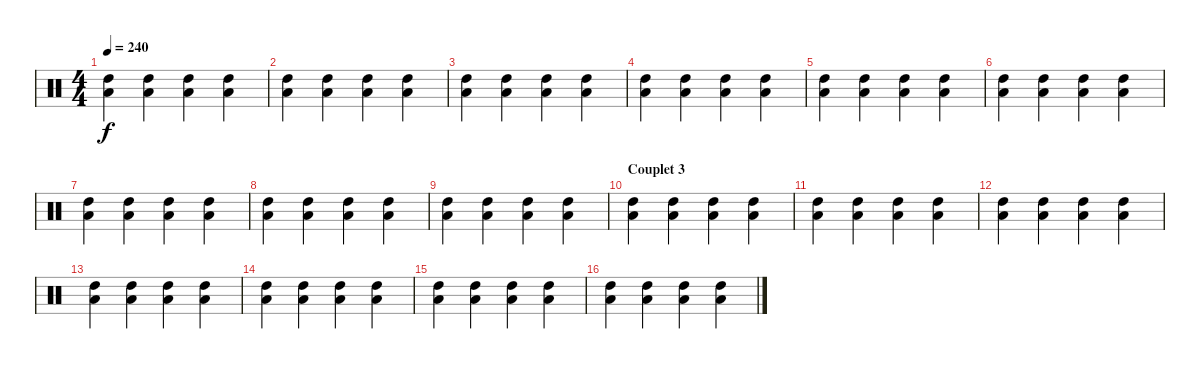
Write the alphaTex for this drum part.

\track "" {instrument percussion}
\staff {score}
\articulation defaults
\ts (4 4)
\tempo 240
\clef neutral
\ks c
("High Tom (hit)" "Low Floor Tom (hit)").4{dy f} ("High Tom (hit)" "Low Floor Tom (hit)").4 ("High Tom (hit)" "Low Floor Tom (hit)").4 ("High Tom (hit)" "Low Floor Tom (hit)").4 |
("High Tom (hit)" "Low Floor Tom (hit)").4 ("High Tom (hit)" "Low Floor Tom (hit)").4 ("High Tom (hit)" "Low Floor Tom (hit)").4 ("High Tom (hit)" "Low Floor Tom (hit)").4 |
("High Tom (hit)" "Low Floor Tom (hit)").4 ("High Tom (hit)" "Low Floor Tom (hit)").4 ("High Tom (hit)" "Low Floor Tom (hit)").4 ("High Tom (hit)" "Low Floor Tom (hit)").4 |
("High Tom (hit)" "Low Floor Tom (hit)").4 ("High Tom (hit)" "Low Floor Tom (hit)").4 ("High Tom (hit)" "Low Floor Tom (hit)").4 ("High Tom (hit)" "Low Floor Tom (hit)").4 |
("High Tom (hit)" "Low Floor Tom (hit)").4 ("High Tom (hit)" "Low Floor Tom (hit)").4 ("High Tom (hit)" "Low Floor Tom (hit)").4 ("High Tom (hit)" "Low Floor Tom (hit)").4 |
("High Tom (hit)" "Low Floor Tom (hit)").4 ("High Tom (hit)" "Low Floor Tom (hit)").4 ("High Tom (hit)" "Low Floor Tom (hit)").4 ("High Tom (hit)" "Low Floor Tom (hit)").4 |
("High Tom (hit)" "Low Floor Tom (hit)").4 ("High Tom (hit)" "Low Floor Tom (hit)").4 ("High Tom (hit)" "Low Floor Tom (hit)").4 ("High Tom (hit)" "Low Floor Tom (hit)").4 |
("High Tom (hit)" "Low Floor Tom (hit)").4 ("High Tom (hit)" "Low Floor Tom (hit)").4 ("High Tom (hit)" "Low Floor Tom (hit)").4 ("High Tom (hit)" "Low Floor Tom (hit)").4 |
("High Tom (hit)" "Low Floor Tom (hit)").4 ("High Tom (hit)" "Low Floor Tom (hit)").4 ("High Tom (hit)" "Low Floor Tom (hit)").4 ("High Tom (hit)" "Low Floor Tom (hit)").4 |
\section ("" "Couplet 3")
("High Tom (hit)" "Low Floor Tom (hit)").4 ("High Tom (hit)" "Low Floor Tom (hit)").4 ("High Tom (hit)" "Low Floor Tom (hit)").4 ("High Tom (hit)" "Low Floor Tom (hit)").4 |
("High Tom (hit)" "Low Floor Tom (hit)").4 ("High Tom (hit)" "Low Floor Tom (hit)").4 ("High Tom (hit)" "Low Floor Tom (hit)").4 ("High Tom (hit)" "Low Floor Tom (hit)").4 |
("High Tom (hit)" "Low Floor Tom (hit)").4 ("High Tom (hit)" "Low Floor Tom (hit)").4 ("High Tom (hit)" "Low Floor Tom (hit)").4 ("High Tom (hit)" "Low Floor Tom (hit)").4 |
("High Tom (hit)" "Low Floor Tom (hit)").4 ("High Tom (hit)" "Low Floor Tom (hit)").4 ("High Tom (hit)" "Low Floor Tom (hit)").4 ("High Tom (hit)" "Low Floor Tom (hit)").4 |
("High Tom (hit)" "Low Floor Tom (hit)").4 ("High Tom (hit)" "Low Floor Tom (hit)").4 ("High Tom (hit)" "Low Floor Tom (hit)").4 ("High Tom (hit)" "Low Floor Tom (hit)").4 |
("High Tom (hit)" "Low Floor Tom (hit)").4 ("High Tom (hit)" "Low Floor Tom (hit)").4 ("High Tom (hit)" "Low Floor Tom (hit)").4 ("High Tom (hit)" "Low Floor Tom (hit)").4 |
("High Tom (hit)" "Low Floor Tom (hit)").4 ("High Tom (hit)" "Low Floor Tom (hit)").4 ("High Tom (hit)" "Low Floor Tom (hit)").4 ("High Tom (hit)" "Low Floor Tom (hit)").4
